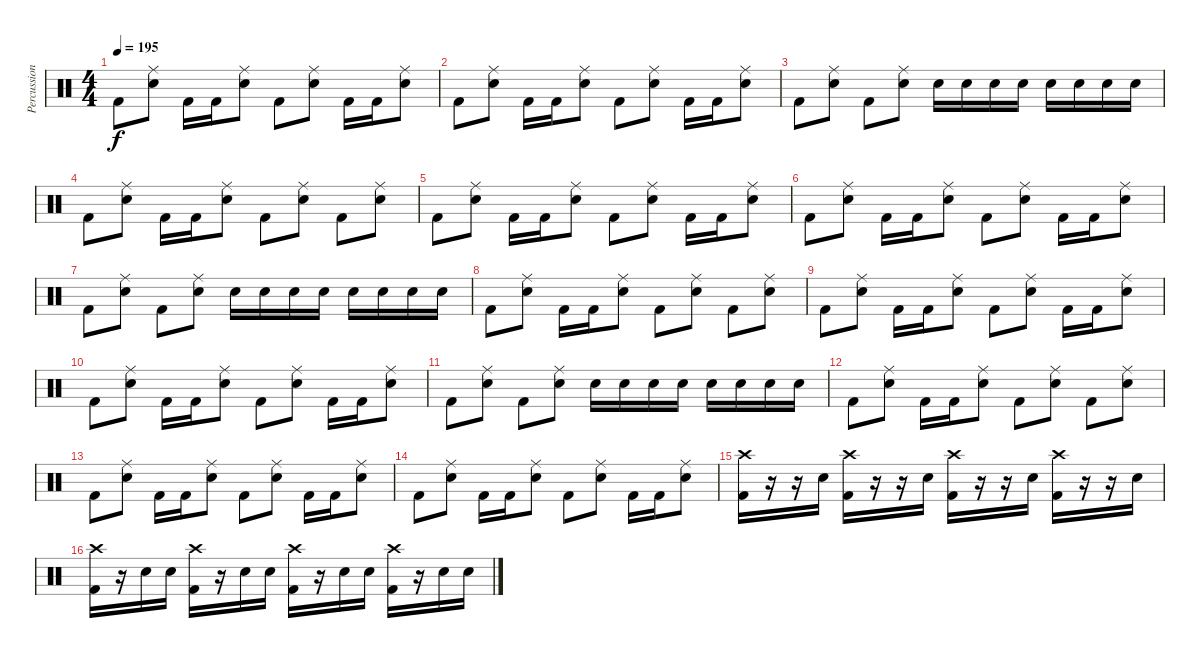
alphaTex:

\track ("Percussion" "Percussion") {instrument percussion}
\staff {score}
\articulation defaults
\ts (4 4)
\tempo 195
\clef neutral
\ks c "Kick (hit) 2".8{dy f}
("Ride (middle)" "Electric Snare (hit)").8 "Kick (hit) 2".16 "Kick (hit) 2".16 ("Ride (middle)" "Electric Snare (hit)").8 "Kick (hit) 2".8 ("Ride (middle)" "Electric Snare (hit)").8 "Kick (hit) 2".16 "Kick (hit) 2".16 ("Ride (middle)" "Electric Snare (hit)").8 |
"Kick (hit) 2".8 ("Ride (middle)" "Electric Snare (hit)").8 "Kick (hit) 2".16 "Kick (hit) 2".16 ("Ride (middle)" "Electric Snare (hit)").8 "Kick (hit) 2".8 ("Ride (middle)" "Electric Snare (hit)").8 "Kick (hit) 2".16 "Kick (hit) 2".16 ("Ride (middle)" "Electric Snare (hit)").8 |
"Kick (hit) 2".8 ("Ride (middle)" "Electric Snare (hit)").8 "Kick (hit) 2".8 ("Ride (middle)" "Electric Snare (hit)").8 "Electric Snare (hit)".16 "Electric Snare (hit)".16 "Electric Snare (hit)".16 "Electric Snare (hit)".16 "Electric Snare (hit)".16 "Electric Snare (hit)".16 "Electric Snare (hit)".16 "Electric Snare (hit)".16 |
"Kick (hit) 2".8 ("Ride (middle)" "Electric Snare (hit)").8 "Kick (hit) 2".16 "Kick (hit) 2".16 ("Ride (middle)" "Electric Snare (hit)").8 "Kick (hit) 2".8 ("Ride (middle)" "Electric Snare (hit)").8 "Kick (hit) 2".8 ("Ride (middle)" "Electric Snare (hit)").8 |
"Kick (hit) 2".8 ("Ride (middle)" "Electric Snare (hit)").8 "Kick (hit) 2".16 "Kick (hit) 2".16 ("Ride (middle)" "Electric Snare (hit)").8 "Kick (hit) 2".8 ("Ride (middle)" "Electric Snare (hit)").8 "Kick (hit) 2".16 "Kick (hit) 2".16 ("Ride (middle)" "Electric Snare (hit)").8 |
"Kick (hit) 2".8 ("Ride (middle)" "Electric Snare (hit)").8 "Kick (hit) 2".16 "Kick (hit) 2".16 ("Ride (middle)" "Electric Snare (hit)").8 "Kick (hit) 2".8 ("Ride (middle)" "Electric Snare (hit)").8 "Kick (hit) 2".16 "Kick (hit) 2".16 ("Ride (middle)" "Electric Snare (hit)").8 |
"Kick (hit) 2".8 ("Ride (middle)" "Electric Snare (hit)").8 "Kick (hit) 2".8 ("Ride (middle)" "Electric Snare (hit)").8 "Electric Snare (hit)".16 "Electric Snare (hit)".16 "Electric Snare (hit)".16 "Electric Snare (hit)".16 "Electric Snare (hit)".16 "Electric Snare (hit)".16 "Electric Snare (hit)".16 "Electric Snare (hit)".16 |
"Kick (hit) 2".8 ("Ride (middle)" "Electric Snare (hit)").8 "Kick (hit) 2".16 "Kick (hit) 2".16 ("Ride (middle)" "Electric Snare (hit)").8 "Kick (hit) 2".8 ("Ride (middle)" "Electric Snare (hit)").8 "Kick (hit) 2".8 ("Ride (middle)" "Electric Snare (hit)").8 |
"Kick (hit) 2".8 ("Ride (middle)" "Electric Snare (hit)").8 "Kick (hit) 2".16 "Kick (hit) 2".16 ("Ride (middle)" "Electric Snare (hit)").8 "Kick (hit) 2".8 ("Ride (middle)" "Electric Snare (hit)").8 "Kick (hit) 2".16 "Kick (hit) 2".16 ("Ride (middle)" "Electric Snare (hit)").8 |
"Kick (hit) 2".8 ("Ride (middle)" "Electric Snare (hit)").8 "Kick (hit) 2".16 "Kick (hit) 2".16 ("Ride (middle)" "Electric Snare (hit)").8 "Kick (hit) 2".8 ("Ride (middle)" "Electric Snare (hit)").8 "Kick (hit) 2".16 "Kick (hit) 2".16 ("Ride (middle)" "Electric Snare (hit)").8 |
"Kick (hit) 2".8 ("Ride (middle)" "Electric Snare (hit)").8 "Kick (hit) 2".8 ("Ride (middle)" "Electric Snare (hit)").8 "Electric Snare (hit)".16 "Electric Snare (hit)".16 "Electric Snare (hit)".16 "Electric Snare (hit)".16 "Electric Snare (hit)".16 "Electric Snare (hit)".16 "Electric Snare (hit)".16 "Electric Snare (hit)".16 |
"Kick (hit) 2".8 ("Ride (middle)" "Electric Snare (hit)").8 "Kick (hit) 2".16 "Kick (hit) 2".16 ("Ride (middle)" "Electric Snare (hit)").8 "Kick (hit) 2".8 ("Ride (middle)" "Electric Snare (hit)").8 "Kick (hit) 2".8 ("Ride (middle)" "Electric Snare (hit)").8 |
"Kick (hit) 2".8 ("Ride (middle)" "Electric Snare (hit)").8 "Kick (hit) 2".16 "Kick (hit) 2".16 ("Ride (middle)" "Electric Snare (hit)").8 "Kick (hit) 2".8 ("Ride (middle)" "Electric Snare (hit)").8 "Kick (hit) 2".16 "Kick (hit) 2".16 ("Ride (middle)" "Electric Snare (hit)").8 |
"Kick (hit) 2".8 ("Ride (middle)" "Electric Snare (hit)").8 "Kick (hit) 2".16 "Kick (hit) 2".16 ("Ride (middle)" "Electric Snare (hit)").8 "Kick (hit) 2".8 ("Ride (middle)" "Electric Snare (hit)").8 "Kick (hit) 2".16 "Kick (hit) 2".16 ("Ride (middle)" "Electric Snare (hit)").8 |
("Crash high (hit)" "Kick (hit) 2").16 r.16 r.16 "Electric Snare (hit)".16 ("Crash high (hit)" "Kick (hit) 2").16 r.16 r.16 "Electric Snare (hit)".16 ("Crash high (hit)" "Kick (hit) 2").16 r.16 r.16 "Electric Snare (hit)".16 ("Crash high (hit)" "Kick (hit) 2").16 r.16 r.16 "Electric Snare (hit)".16 |
("Crash high (hit)" "Kick (hit) 2").16 r.16 "Electric Snare (hit)".16 "Electric Snare (hit)".16 ("Crash high (hit)" "Kick (hit) 2").16 r.16 "Electric Snare (hit)".16 "Electric Snare (hit)".16 ("Crash high (hit)" "Kick (hit) 2").16 r.16 "Electric Snare (hit)".16 "Electric Snare (hit)".16 ("Crash high (hit)" "Kick (hit) 2").16 r.16 "Electric Snare (hit)".16 "Electric Snare (hit)".16
